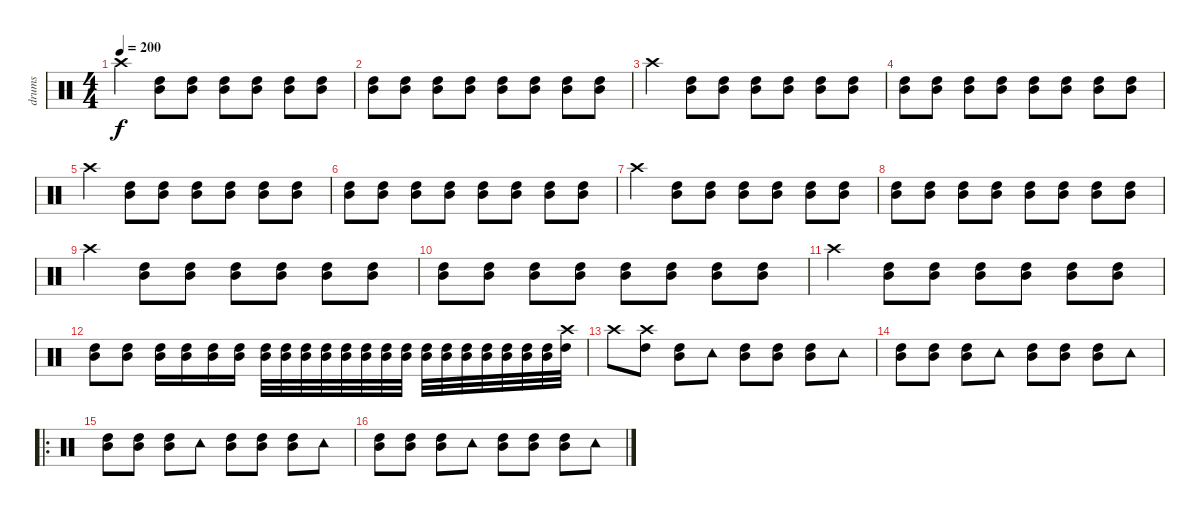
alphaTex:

\track ("drums" "drums") {instrument percussion}
\staff {score}
\articulation defaults
\ts (4 4)
\tempo 200
\clef neutral
\ks c "Crash high (hit)".4{dy f}
("Mid Tom (hit)" "High Tom (hit)").8 ("Mid Tom (hit)" "High Tom (hit)").8 ("Mid Tom (hit)" "High Tom (hit)").8 ("Mid Tom (hit)" "High Tom (hit)").8 ("Mid Tom (hit)" "High Tom (hit)").8 ("Mid Tom (hit)" "High Tom (hit)").8 |
("Mid Tom (hit)" "High Tom (hit)").8 ("Mid Tom (hit)" "High Tom (hit)").8 ("Mid Tom (hit)" "High Tom (hit)").8 ("Mid Tom (hit)" "High Tom (hit)").8 ("Mid Tom (hit)" "High Tom (hit)").8 ("Mid Tom (hit)" "High Tom (hit)").8 ("Mid Tom (hit)" "High Tom (hit)").8 ("Mid Tom (hit)" "High Tom (hit)").8 |
"Crash high (hit)".4 ("Mid Tom (hit)" "High Tom (hit)").8 ("Mid Tom (hit)" "High Tom (hit)").8 ("Mid Tom (hit)" "High Tom (hit)").8 ("Mid Tom (hit)" "High Tom (hit)").8 ("Mid Tom (hit)" "High Tom (hit)").8 ("Mid Tom (hit)" "High Tom (hit)").8 |
("Mid Tom (hit)" "High Tom (hit)").8 ("Mid Tom (hit)" "High Tom (hit)").8 ("Mid Tom (hit)" "High Tom (hit)").8 ("Mid Tom (hit)" "High Tom (hit)").8 ("Mid Tom (hit)" "High Tom (hit)").8 ("Mid Tom (hit)" "High Tom (hit)").8 ("Mid Tom (hit)" "High Tom (hit)").8 ("Mid Tom (hit)" "High Tom (hit)").8 |
"Crash high (hit)".4 ("Mid Tom (hit)" "High Tom (hit)").8 ("Mid Tom (hit)" "High Tom (hit)").8 ("Mid Tom (hit)" "High Tom (hit)").8 ("Mid Tom (hit)" "High Tom (hit)").8 ("Mid Tom (hit)" "High Tom (hit)").8 ("Mid Tom (hit)" "High Tom (hit)").8 |
("Mid Tom (hit)" "High Tom (hit)").8 ("Mid Tom (hit)" "High Tom (hit)").8 ("Mid Tom (hit)" "High Tom (hit)").8 ("Mid Tom (hit)" "High Tom (hit)").8 ("Mid Tom (hit)" "High Tom (hit)").8 ("Mid Tom (hit)" "High Tom (hit)").8 ("Mid Tom (hit)" "High Tom (hit)").8 ("Mid Tom (hit)" "High Tom (hit)").8 |
"Crash high (hit)".4 ("Mid Tom (hit)" "High Tom (hit)").8 ("Mid Tom (hit)" "High Tom (hit)").8 ("Mid Tom (hit)" "High Tom (hit)").8 ("Mid Tom (hit)" "High Tom (hit)").8 ("Mid Tom (hit)" "High Tom (hit)").8 ("Mid Tom (hit)" "High Tom (hit)").8 |
("Mid Tom (hit)" "High Tom (hit)").8 ("Mid Tom (hit)" "High Tom (hit)").8 ("Mid Tom (hit)" "High Tom (hit)").8 ("Mid Tom (hit)" "High Tom (hit)").8 ("Mid Tom (hit)" "High Tom (hit)").8 ("Mid Tom (hit)" "High Tom (hit)").8 ("Mid Tom (hit)" "High Tom (hit)").8 ("Mid Tom (hit)" "High Tom (hit)").8 |
"Crash high (hit)".4 ("Mid Tom (hit)" "High Tom (hit)").8 ("Mid Tom (hit)" "High Tom (hit)").8 ("Mid Tom (hit)" "High Tom (hit)").8 ("Mid Tom (hit)" "High Tom (hit)").8 ("Mid Tom (hit)" "High Tom (hit)").8 ("Mid Tom (hit)" "High Tom (hit)").8 |
("Mid Tom (hit)" "High Tom (hit)").8 ("Mid Tom (hit)" "High Tom (hit)").8 ("Mid Tom (hit)" "High Tom (hit)").8 ("Mid Tom (hit)" "High Tom (hit)").8 ("Mid Tom (hit)" "High Tom (hit)").8 ("Mid Tom (hit)" "High Tom (hit)").8 ("Mid Tom (hit)" "High Tom (hit)").8 ("Mid Tom (hit)" "High Tom (hit)").8 |
"Crash high (hit)".4 ("Mid Tom (hit)" "High Tom (hit)").8 ("Mid Tom (hit)" "High Tom (hit)").8 ("Mid Tom (hit)" "High Tom (hit)").8 ("Mid Tom (hit)" "High Tom (hit)").8 ("Mid Tom (hit)" "High Tom (hit)").8 ("Mid Tom (hit)" "High Tom (hit)").8 |
("Mid Tom (hit)" "High Tom (hit)").8 ("Mid Tom (hit)" "High Tom (hit)").8 ("Mid Tom (hit)" "High Tom (hit)").16 ("Mid Tom (hit)" "High Tom (hit)").16 ("Mid Tom (hit)" "High Tom (hit)").16 ("Mid Tom (hit)" "High Tom (hit)").16 ("Mid Tom (hit)" "High Tom (hit)").32 ("Mid Tom (hit)" "High Tom (hit)").32 ("Mid Tom (hit)" "High Tom (hit)").32 ("Mid Tom (hit)" "High Tom (hit)").32 ("Mid Tom (hit)" "High Tom (hit)").32 ("Mid Tom (hit)" "High Tom (hit)").32 ("Mid Tom (hit)" "High Tom (hit)").32 ("Mid Tom (hit)" "High Tom (hit)").32 ("Mid Tom (hit)" "High Tom (hit)").32 ("Mid Tom (hit)" "High Tom (hit)").32 ("Mid Tom (hit)" "High Tom (hit)").32 ("Mid Tom (hit)" "High Tom (hit)").32 ("Mid Tom (hit)" "High Tom (hit)").32 ("Mid Tom (hit)" "High Tom (hit)").32 ("Mid Tom (hit)" "High Tom (hit)").32 ("Crash high (hit)" "High Tom (hit)").32 |
"Crash high (hit)".8 ("Crash high (hit)" "High Tom (hit)").8 ("Mid Tom (hit)" "High Tom (hit)").8 "Tambourine (hit)".8 ("Mid Tom (hit)" "High Tom (hit)").8 ("Mid Tom (hit)" "High Tom (hit)").8 ("Mid Tom (hit)" "High Tom (hit)").8 "Tambourine (hit)".8 |
("Mid Tom (hit)" "High Tom (hit)").8 ("Mid Tom (hit)" "High Tom (hit)").8 ("Mid Tom (hit)" "High Tom (hit)").8 "Tambourine (hit)".8 ("Mid Tom (hit)" "High Tom (hit)").8 ("Mid Tom (hit)" "High Tom (hit)").8 ("Mid Tom (hit)" "High Tom (hit)").8 "Tambourine (hit)".8 |
\ro
("Mid Tom (hit)" "High Tom (hit)").8 ("Mid Tom (hit)" "High Tom (hit)").8 ("Mid Tom (hit)" "High Tom (hit)").8 "Tambourine (hit)".8 ("Mid Tom (hit)" "High Tom (hit)").8 ("Mid Tom (hit)" "High Tom (hit)").8 ("Mid Tom (hit)" "High Tom (hit)").8 "Tambourine (hit)".8 |
("Mid Tom (hit)" "High Tom (hit)").8 ("Mid Tom (hit)" "High Tom (hit)").8 ("Mid Tom (hit)" "High Tom (hit)").8 "Tambourine (hit)".8 ("Mid Tom (hit)" "High Tom (hit)").8 ("Mid Tom (hit)" "High Tom (hit)").8 ("Mid Tom (hit)" "High Tom (hit)").8 "Tambourine (hit)".8
